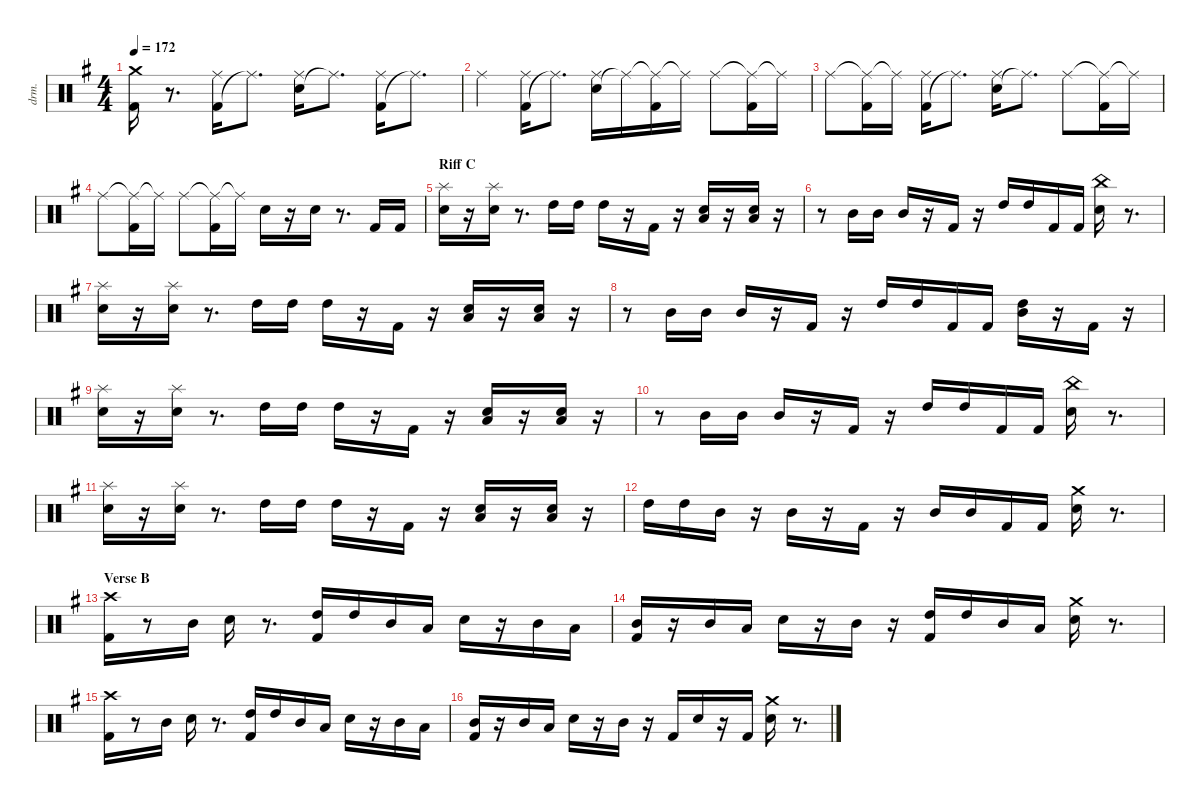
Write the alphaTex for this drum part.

\defaultSystemsLayout 4
\hideDynamics
\bracketExtendMode nobrackets
\otherSystemsTrackNameOrientation horizontal
\track ("Shinya" "drm.") {instrument percussion}
\staff {score}
\articulation defaults
\ts (4 4)
\tempo 172
\clef neutral
\ks eminor
("Kick (hit) 2"{acc forcenatural} "Crash medium (hit)"{acc forcenatural}).16{dy fff beam Down} r.8{d beam Down} ("Kick (hit) 2"{acc forcenatural} "Ride (middle)"{acc #}).16{beam Down} "Ride (middle)"{t acc #}.8{d beam Down} ("Snare (hit) 2"{acc forcenatural} "Ride (middle)"{acc #}).16{beam Down} "Ride (middle)"{t acc #}.8{d beam Down} ("Kick (hit) 2"{acc forcenatural} "Ride (middle)"{acc #}).16{beam Down} "Ride (middle)"{t acc #}.8{d beam Down} |
"Ride (middle)"{acc #}.4{beam Down} ("Kick (hit) 2"{acc forcenatural} "Ride (middle)"{acc #}).16{beam Down} "Ride (middle)"{t acc #}.8{d beam Down} ("Snare (hit) 2"{acc forcenatural} "Ride (middle)"{acc #}).16{beam Down} "Ride (middle)"{t acc #}.16{beam Down} ("Ride (middle)"{t acc #} "Kick (hit) 2"{acc forcenatural}).16{beam Down} "Ride (middle)"{t acc #}.16{beam Down} "Ride (middle)"{acc #}.8{beam Down} ("Ride (middle)"{t acc #} "Kick (hit) 2"{acc forcenatural}).16{beam Down} "Ride (middle)"{t acc #}.16{beam Down} |
"Ride (middle)"{acc #}.8{beam Down} ("Ride (middle)"{t acc #} "Kick (hit) 2"{acc forcenatural}).16{beam Down} "Ride (middle)"{t acc #}.16{beam Down} ("Kick (hit) 2"{acc forcenatural} "Ride (middle)"{acc #}).16{beam Down} "Ride (middle)"{t acc #}.8{d beam Down} ("Snare (hit) 2"{acc forcenatural} "Ride (middle)"{acc #}).16{beam Down} "Ride (middle)"{t acc #}.8{d beam Down} "Ride (middle)"{acc #}.8{beam Down} ("Ride (middle)"{t acc #} "Kick (hit) 2"{acc forcenatural}).16{beam Down} "Ride (middle)"{t acc #}.16{beam Down} |
"Ride (middle)"{acc #}.8{beam Down} ("Ride (middle)"{t acc #} "Kick (hit) 2"{acc forcenatural}).16{beam Down} "Ride (middle)"{t acc #}.16{beam Down} "Ride (middle)"{acc #}.8{beam Down} ("Ride (middle)"{t acc #} "Kick (hit) 2"{acc forcenatural}).16{beam Down} "Ride (middle)"{t acc #}.16{beam Down} "Snare (hit) 2"{acc forcenatural}.16{beam Down} r.16{beam Down} "Snare (hit) 2"{acc forcenatural}.16{beam Down} r.8{d beam Down} "Kick (hit) 2"{acc forcenatural}.16{beam Up} "Kick (hit) 2"{acc forcenatural}.16{beam Up} |
\section ("" "Riff C")
("Snare (hit) 2"{acc forcenatural} "Splash (hit)"{acc forcenatural}).16{beam Down} r.16{beam Down} ("Snare (hit) 2"{acc forcenatural} "Splash (hit)"{acc forcenatural}).16{beam Down} r.8{d beam Down} "High Tom (hit)"{acc forcenatural}.16{beam Down} "High Tom (hit)"{acc forcenatural}.16{beam Down} "High Tom (hit)"{acc forcenatural}.16{beam Down} r.16{beam Down} "Kick (hit) 2"{acc forcenatural}.16{beam Up} r.16{beam Up} ("Snare (hit) 2"{acc forcenatural} "Low Tom (hit)"{acc forcenatural}).16{beam Up} r.16{beam Up} ("Snare (hit) 2"{acc forcenatural} "Low Tom (hit)"{acc forcenatural}).16{beam Up} r.16{beam Up} |
r.8{beam Down} "Mid Tom (hit)"{acc forcenatural}.16{beam Up} "Mid Tom (hit)"{acc forcenatural}.16{beam Up} "Mid Tom (hit)"{acc forcenatural}.16{beam Up} r.16{beam Up} "Kick (hit) 2"{acc forcenatural}.16{beam Up} r.16{beam Up} "High Tom (hit)"{acc forcenatural}.16{beam Up} "High Tom (hit)"{acc forcenatural}.16{beam Up} "Kick (hit) 2"{acc forcenatural}.16{beam Up} "Kick (hit) 2"{acc forcenatural}.16{beam Up} ("Snare (hit) 2"{acc forcenatural} "China (hit)"{acc forcenatural}).16{beam Down} r.8{d beam Down} |
("Snare (hit) 2"{acc forcenatural} "Splash (hit)"{acc forcenatural}).16{beam Down} r.16{beam Down} ("Snare (hit) 2"{acc forcenatural} "Splash (hit)"{acc forcenatural}).16{beam Down} r.8{d beam Down} "High Tom (hit)"{acc forcenatural}.16{beam Down} "High Tom (hit)"{acc forcenatural}.16{beam Down} "High Tom (hit)"{acc forcenatural}.16{beam Down} r.16{beam Down} "Kick (hit) 2"{acc forcenatural}.16{beam Up} r.16{beam Up} ("Snare (hit) 2"{acc forcenatural} "Low Tom (hit)"{acc forcenatural}).16{beam Up} r.16{beam Up} ("Snare (hit) 2"{acc forcenatural} "Low Tom (hit)"{acc forcenatural}).16{beam Up} r.16{beam Up} |
r.8{beam Down} "Mid Tom (hit)"{acc forcenatural}.16{beam Up} "Mid Tom (hit)"{acc forcenatural}.16{beam Up} "Mid Tom (hit)"{acc forcenatural}.16{beam Up} r.16{beam Up} "Kick (hit) 2"{acc forcenatural}.16{beam Up} r.16{beam Up} "High Tom (hit)"{acc forcenatural}.16{beam Up} "High Tom (hit)"{acc forcenatural}.16{beam Up} "Kick (hit) 2"{acc forcenatural}.16{beam Up} "Kick (hit) 2"{acc forcenatural}.16{beam Up} ("Mid Tom (hit)"{acc forcenatural} "High Tom (hit)"{acc forcenatural}).16{beam Down} r.16{beam Down} "Kick (hit) 2"{acc forcenatural}.16{beam Up} r.16{beam Up} |
("Snare (hit) 2"{acc forcenatural} "Splash (hit)"{acc forcenatural}).16{beam Down} r.16{beam Down} ("Snare (hit) 2"{acc forcenatural} "Splash (hit)"{acc forcenatural}).16{beam Down} r.8{d beam Down} "High Tom (hit)"{acc forcenatural}.16{beam Down} "High Tom (hit)"{acc forcenatural}.16{beam Down} "High Tom (hit)"{acc forcenatural}.16{beam Down} r.16{beam Down} "Kick (hit) 2"{acc forcenatural}.16{beam Up} r.16{beam Up} ("Snare (hit) 2"{acc forcenatural} "Low Tom (hit)"{acc forcenatural}).16{beam Up} r.16{beam Up} ("Snare (hit) 2"{acc forcenatural} "Low Tom (hit)"{acc forcenatural}).16{beam Up} r.16{beam Up} |
r.8{beam Down} "Mid Tom (hit)"{acc forcenatural}.16{beam Up} "Mid Tom (hit)"{acc forcenatural}.16{beam Up} "Mid Tom (hit)"{acc forcenatural}.16{beam Up} r.16{beam Up} "Kick (hit) 2"{acc forcenatural}.16{beam Up} r.16{beam Up} "High Tom (hit)"{acc forcenatural}.16{beam Up} "High Tom (hit)"{acc forcenatural}.16{beam Up} "Kick (hit) 2"{acc forcenatural}.16{beam Up} "Kick (hit) 2"{acc forcenatural}.16{beam Up} ("Snare (hit) 2"{acc forcenatural} "China (hit)"{acc forcenatural}).16{beam Down} r.8{d beam Down} |
("Snare (hit) 2"{acc forcenatural} "Splash (hit)"{acc forcenatural}).16{beam Down} r.16{beam Down} ("Snare (hit) 2"{acc forcenatural} "Splash (hit)"{acc forcenatural}).16{beam Down} r.8{d beam Down} "High Tom (hit)"{acc forcenatural}.16{beam Down} "High Tom (hit)"{acc forcenatural}.16{beam Down} "High Tom (hit)"{acc forcenatural}.16{beam Down} r.16{beam Down} "Kick (hit) 2"{acc forcenatural}.16{beam Up} r.16{beam Up} ("Snare (hit) 2"{acc forcenatural} "Low Tom (hit)"{acc forcenatural}).16{beam Up} r.16{beam Up} ("Snare (hit) 2"{acc forcenatural} "Low Tom (hit)"{acc forcenatural}).16{beam Up} r.16{beam Up} |
"High Tom (hit)"{acc forcenatural}.16{beam Down} "High Tom (hit)"{acc forcenatural}.16{beam Down} "Mid Tom (hit)"{acc forcenatural}.16{beam Down} r.16{beam Down} "Mid Tom (hit)"{acc forcenatural}.16{beam Down} r.16{beam Down} "Kick (hit) 2"{acc forcenatural}.16{beam Up} r.16{beam Up} "Mid Tom (hit)"{acc forcenatural}.16{beam Up} "Mid Tom (hit)"{acc forcenatural}.16{beam Up} "Kick (hit) 2"{acc forcenatural}.16{beam Up} "Kick (hit) 2"{acc forcenatural}.16{beam Up} ("Snare (hit) 2"{acc forcenatural} "Crash medium (hit)"{acc forcenatural}).16{beam Down} r.8{d beam Down} |
\section ("" "Verse B")
("Kick (hit) 2"{acc forcenatural} "Crash high (hit)"{acc #}).16{beam Down} r.8{beam Down} "Mid Tom (hit)"{acc forcenatural}.16{beam Down} "Snare (hit) 2"{acc forcenatural}.16{beam Down} r.8{d beam Down} ("Kick (hit) 2"{acc forcenatural} "High Tom (hit)"{acc forcenatural}).16{beam Up} "High Tom (hit)"{acc forcenatural}.16{beam Up} "Mid Tom (hit)"{acc forcenatural}.16{beam Up} "Low Tom (hit)"{acc forcenatural}.16{beam Up} "Snare (hit) 2"{acc forcenatural}.16{beam Down} r.16{beam Down} "Mid Tom (hit)"{acc forcenatural}.16{beam Up} "Low Tom (hit)"{acc forcenatural}.16{beam Up} |
("Kick (hit) 2"{acc forcenatural} "Mid Tom (hit)"{acc forcenatural}).16{beam Up} r.16{beam Up} "Mid Tom (hit)"{acc forcenatural}.16{beam Up} "Low Tom (hit)"{acc forcenatural}.16{dy ff beam Up} "Snare (hit) 2"{acc forcenatural}.16{dy fff beam Down} r.16{beam Down} "Mid Tom (hit)"{acc forcenatural}.16{beam Down} r.16{beam Down} ("Kick (hit) 2"{acc forcenatural} "High Tom (hit)"{acc forcenatural}).16{beam Up} "High Tom (hit)"{acc forcenatural}.16{beam Up} "Mid Tom (hit)"{acc forcenatural}.16{beam Up} "Low Tom (hit)"{acc forcenatural}.16{beam Up} ("Snare (hit) 2"{acc forcenatural} "Crash medium (hit)"{acc forcenatural}).16{beam Down} r.8{d beam Down} |
("Kick (hit) 2"{acc forcenatural} "Crash high (hit)"{acc #}).16{beam Down} r.8{beam Down} "Mid Tom (hit)"{acc forcenatural}.16{beam Down} "Snare (hit) 2"{acc forcenatural}.16{beam Down} r.8{d beam Down} ("Kick (hit) 2"{acc forcenatural} "High Tom (hit)"{acc forcenatural}).16{beam Up} "High Tom (hit)"{acc forcenatural}.16{beam Up} "Mid Tom (hit)"{acc forcenatural}.16{beam Up} "Low Tom (hit)"{acc forcenatural}.16{beam Up} "Snare (hit) 2"{acc forcenatural}.16{beam Down} r.16{beam Down} "Mid Tom (hit)"{acc forcenatural}.16{beam Up} "Low Tom (hit)"{acc forcenatural}.16{beam Up} |
("Kick (hit) 2"{acc forcenatural} "Mid Tom (hit)"{acc forcenatural}).16{beam Up} r.16{beam Up} "Mid Tom (hit)"{acc forcenatural}.16{beam Up} "Low Tom (hit)"{acc forcenatural}.16{dy ff beam Up} "Snare (hit) 2"{acc forcenatural}.16{dy fff beam Down} r.16{beam Down} "Mid Tom (hit)"{acc forcenatural}.16{beam Down} r.16{beam Down} "Kick (hit) 2"{acc forcenatural}.16{beam Up} "Snare (hit) 2"{acc forcenatural}.16{beam Up} r.16{beam Up} "Kick (hit) 2"{acc forcenatural}.16{beam Up} ("Snare (hit) 2"{acc forcenatural} "Crash medium (hit)"{acc forcenatural}).16{beam Down} r.8{d beam Down}
